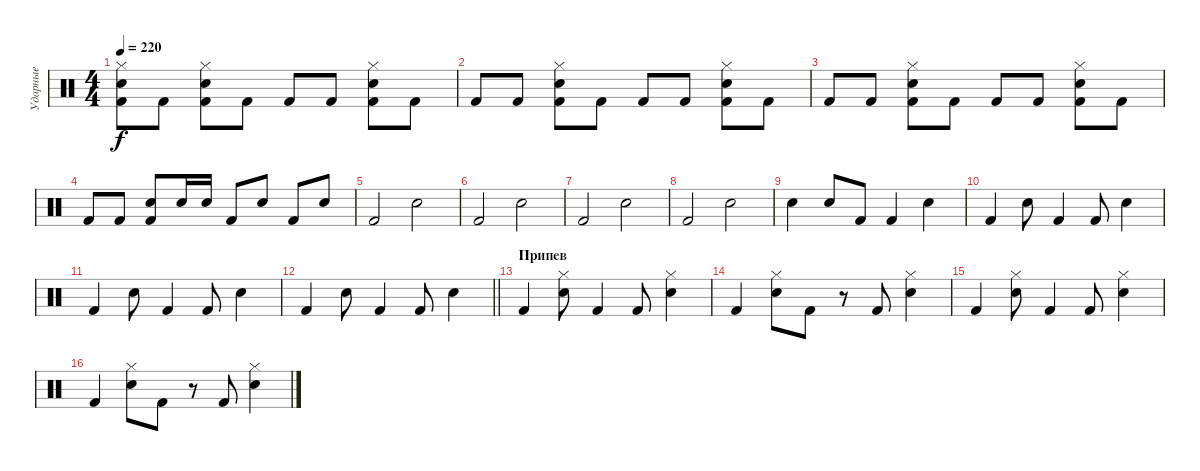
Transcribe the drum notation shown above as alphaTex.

\track ("Ударные" "Ударные") {instrument percussion}
\staff {score}
\articulation defaults
\ts (4 4)
\tempo 220
\clef neutral
\ks c
("Hi-Hat (closed)" "Snare (hit) 2" "Kick (hit) 2").8{dy f} "Kick (hit) 2".8 ("Hi-Hat (closed)" "Snare (hit) 2" "Kick (hit) 2").8 "Kick (hit) 2".8 "Kick (hit) 2".8 "Kick (hit) 2".8 ("Hi-Hat (closed)" "Snare (hit) 2" "Kick (hit) 2").8 "Kick (hit) 2".8 |
"Kick (hit) 2".8 "Kick (hit) 2".8 ("Hi-Hat (closed)" "Snare (hit) 2" "Kick (hit) 2").8 "Kick (hit) 2".8 "Kick (hit) 2".8 "Kick (hit) 2".8 ("Hi-Hat (closed)" "Snare (hit) 2" "Kick (hit) 2").8 "Kick (hit) 2".8 |
"Kick (hit) 2".8 "Kick (hit) 2".8 ("Hi-Hat (closed)" "Snare (hit) 2" "Kick (hit) 2").8 "Kick (hit) 2".8 "Kick (hit) 2".8 "Kick (hit) 2".8 ("Hi-Hat (closed)" "Snare (hit) 2" "Kick (hit) 2").8 "Kick (hit) 2".8 |
"Kick (hit) 2".8 "Kick (hit) 2".8 ("Snare (hit) 2" "Kick (hit) 2").8 "Snare (hit) 2".16 "Snare (hit) 2".16 "Kick (hit) 2".8 "Snare (hit) 2".8 "Kick (hit) 2".8 "Snare (hit) 2".8 |
"Kick (hit) 2".2 "Snare (hit) 2".2 |
"Kick (hit) 2".2 "Snare (hit) 2".2 |
"Kick (hit) 2".2 "Snare (hit) 2".2 |
"Kick (hit) 2".2 "Snare (hit) 2".2 |
"Snare (hit) 2".4 "Snare (hit) 2".8 "Kick (hit) 2".8 "Kick (hit) 2".4 "Snare (hit) 2".4 |
"Kick (hit) 2".4 "Snare (hit) 2".8 "Kick (hit) 2".4 "Kick (hit) 2".8 "Snare (hit) 2".4 |
"Kick (hit) 2".4 "Snare (hit) 2".8 "Kick (hit) 2".4 "Kick (hit) 2".8 "Snare (hit) 2".4 |
\barLineRight lightlight "Kick (hit) 2".4 "Snare (hit) 2".8 "Kick (hit) 2".4 "Kick (hit) 2".8 "Snare (hit) 2".4
|
\section ("" "Припев")
"Kick (hit) 2".4 ("Hi-Hat (closed)" "Snare (hit) 2").8 "Kick (hit) 2".4 "Kick (hit) 2".8 ("Hi-Hat (closed)" "Snare (hit) 2").4 |
"Kick (hit) 2".4 ("Hi-Hat (closed)" "Snare (hit) 2").8 "Kick (hit) 2".8 r.8 "Kick (hit) 2".8 ("Hi-Hat (closed)" "Snare (hit) 2").4 |
"Kick (hit) 2".4 ("Hi-Hat (closed)" "Snare (hit) 2").8 "Kick (hit) 2".4 "Kick (hit) 2".8 ("Hi-Hat (closed)" "Snare (hit) 2").4 |
"Kick (hit) 2".4 ("Hi-Hat (closed)" "Snare (hit) 2").8 "Kick (hit) 2".8 r.8 "Kick (hit) 2".8 ("Hi-Hat (closed)" "Snare (hit) 2").4
